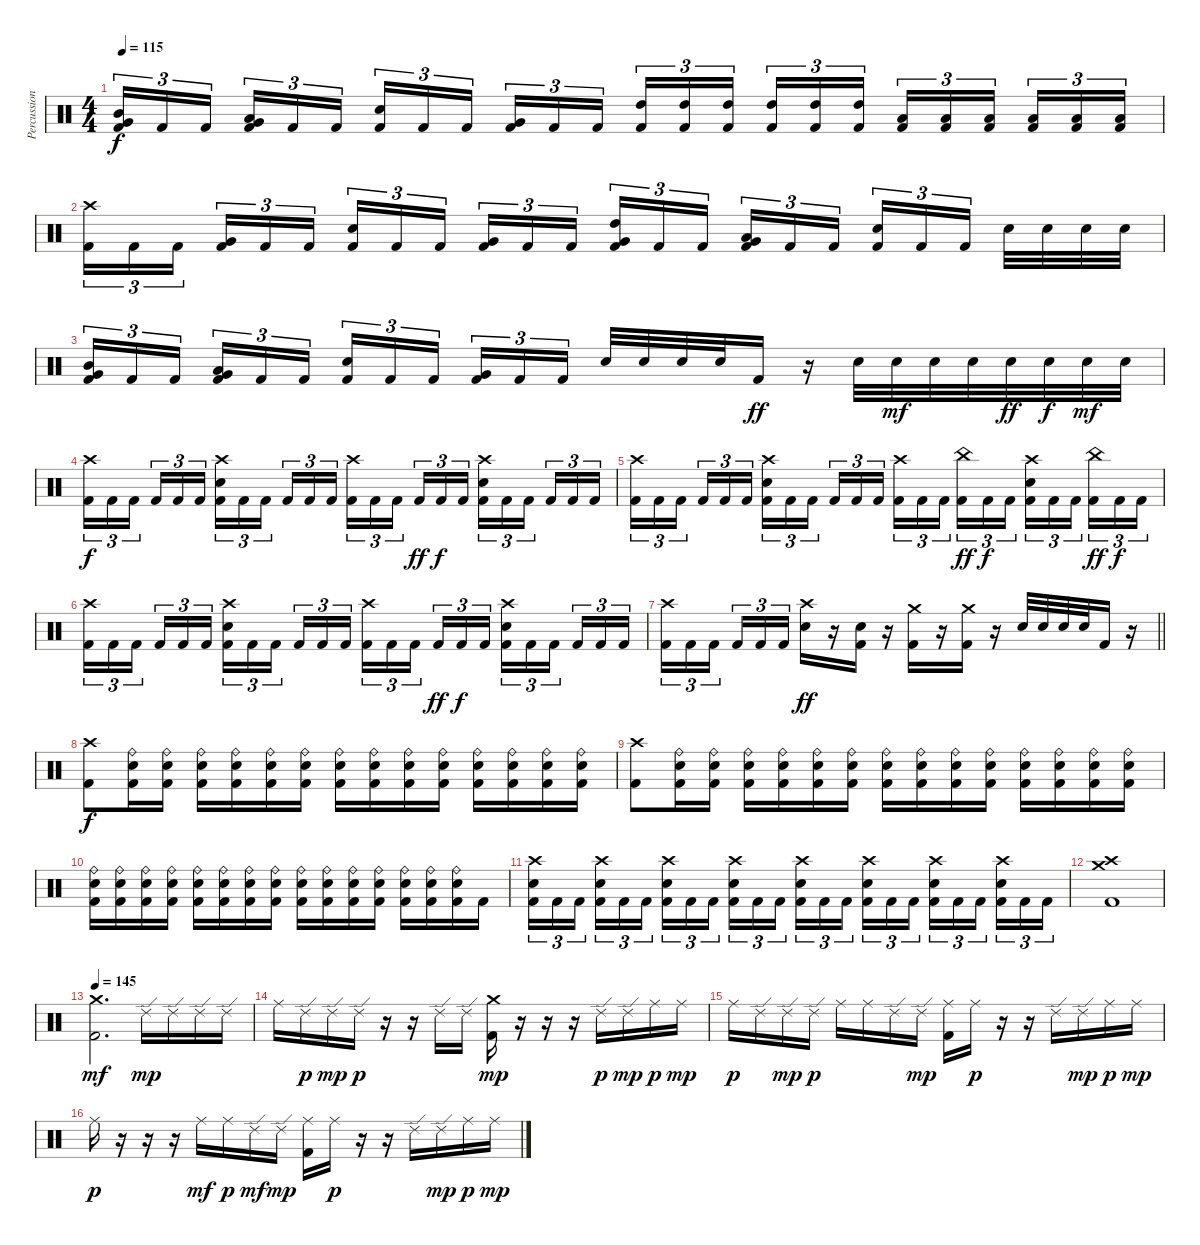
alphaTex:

\track ("Percussion" "Percussion") {instrument percussion}
\staff {score}
\articulation defaults
\ts (4 4)
\tempo 115
\clef neutral
\ks c
("Mid Tom (hit)" "Very Low Tom (hit)" "Kick (hit) 2").16{tu (3 2) dy f} "Kick (hit) 2".16{tu (3 2)} "Kick (hit) 2".16{tu (3 2) beam splitsecondary} ("Low Tom (hit)" "Very Low Tom (hit)" "Kick (hit) 2").16{tu (3 2)} "Kick (hit) 2".16{tu (3 2)} "Kick (hit) 2".16{tu (3 2)} ("Snare (hit) 2" "Kick (hit) 2").16{tu (3 2)} "Kick (hit) 2".16{tu (3 2)} "Kick (hit) 2".16{tu (3 2) beam splitsecondary} ("Very Low Tom (hit)" "Kick (hit) 2").16{tu (3 2)} "Kick (hit) 2".16{tu (3 2)} "Kick (hit) 2".16{tu (3 2)} ("High Tom (hit)" "Kick (hit) 2").16{tu (3 2)} ("High Tom (hit)" "Kick (hit) 2").16{tu (3 2)} ("High Tom (hit)" "Kick (hit) 2").16{tu (3 2) beam splitsecondary} ("High Tom (hit)" "Kick (hit) 2").16{tu (3 2)} ("High Tom (hit)" "Kick (hit) 2").16{tu (3 2)} ("High Tom (hit)" "Kick (hit) 2").16{tu (3 2)} ("Low Tom (hit)" "Kick (hit) 2").16{tu (3 2)} ("Low Tom (hit)" "Kick (hit) 2").16{tu (3 2)} ("Low Tom (hit)" "Kick (hit) 2").16{tu (3 2) beam splitsecondary} ("Low Tom (hit)" "Kick (hit) 2").16{tu (3 2)} ("Low Tom (hit)" "Kick (hit) 2").16{tu (3 2)} ("Low Tom (hit)" "Kick (hit) 2").16{tu (3 2)} |
("Crash high (hit)" "Kick (hit) 2").16{tu (3 2)} "Kick (hit) 2".16{tu (3 2)} "Kick (hit) 2".16{tu (3 2) beam splitsecondary} ("Very Low Tom (hit)" "Kick (hit) 2").16{tu (3 2)} "Kick (hit) 2".16{tu (3 2)} "Kick (hit) 2".16{tu (3 2)} ("Snare (hit) 2" "Kick (hit) 2").16{tu (3 2)} "Kick (hit) 2".16{tu (3 2)} "Kick (hit) 2".16{tu (3 2) beam splitsecondary} ("Very Low Tom (hit)" "Kick (hit) 2").16{tu (3 2)} "Kick (hit) 2".16{tu (3 2)} "Kick (hit) 2".16{tu (3 2)} ("High Tom (hit)" "Very Low Tom (hit)" "Kick (hit) 2").16{tu (3 2)} "Kick (hit) 2".16{tu (3 2)} "Kick (hit) 2".16{tu (3 2) beam splitsecondary} ("Low Tom (hit)" "Very Low Tom (hit)" "Kick (hit) 2").16{tu (3 2)} "Kick (hit) 2".16{tu (3 2)} "Kick (hit) 2".16{tu (3 2)} ("Snare (hit) 2" "Kick (hit) 2").16{tu (3 2)} "Kick (hit) 2".16{tu (3 2)} "Kick (hit) 2".16{tu (3 2) beam splitsecondary} "Snare (hit) 2".32 "Snare (hit) 2".32 "Snare (hit) 2".32 "Snare (hit) 2".32 |
("Mid Tom (hit)" "Very Low Tom (hit)" "Kick (hit) 2").16{tu (3 2)} "Kick (hit) 2".16{tu (3 2)} "Kick (hit) 2".16{tu (3 2) beam splitsecondary} ("Low Tom (hit)" "Very Low Tom (hit)" "Kick (hit) 2").16{tu (3 2)} "Kick (hit) 2".16{tu (3 2)} "Kick (hit) 2".16{tu (3 2)} ("Snare (hit) 2" "Kick (hit) 2").16{tu (3 2)} "Kick (hit) 2".16{tu (3 2)} "Kick (hit) 2".16{tu (3 2) beam splitsecondary} ("Very Low Tom (hit)" "Kick (hit) 2").16{tu (3 2)} "Kick (hit) 2".16{tu (3 2)} "Kick (hit) 2".16{tu (3 2)} "Snare (hit) 2".32 "Snare (hit) 2".32 "Snare (hit) 2".32 "Snare (hit) 2".32 "Kick (hit) 2".16{dy ff} r.16 "Snare (hit) 2".32 "Snare (hit) 2".32{dy mf} "Snare (hit) 2".32 "Snare (hit) 2".32 "Snare (hit) 2".32{dy ff} "Snare (hit) 2".32{dy f} "Snare (hit) 2".32{dy mf} "Snare (hit) 2".32 |
("Crash high (hit)" "Kick (hit) 2").16{tu (3 2) dy f} "Kick (hit) 2".16{tu (3 2)} "Kick (hit) 2".16{tu (3 2) beam splitsecondary} "Kick (hit) 2".16{tu (3 2)} "Kick (hit) 2".16{tu (3 2)} "Kick (hit) 2".16{tu (3 2)} ("Crash high (hit)" "Snare (hit) 2" "Kick (hit) 2").16{tu (3 2)} "Kick (hit) 2".16{tu (3 2)} "Kick (hit) 2".16{tu (3 2) beam splitsecondary} "Kick (hit) 2".16{tu (3 2)} "Kick (hit) 2".16{tu (3 2)} "Kick (hit) 2".16{tu (3 2)} ("Crash high (hit)" "Kick (hit) 2").16{tu (3 2)} "Kick (hit) 2".16{tu (3 2)} "Kick (hit) 2".16{tu (3 2) beam splitsecondary} "Kick (hit) 2".16{tu (3 2) dy ff} "Kick (hit) 2".16{tu (3 2) dy f} "Kick (hit) 2".16{tu (3 2)} ("Crash high (hit)" "Snare (hit) 2" "Kick (hit) 2").16{tu (3 2)} "Kick (hit) 2".16{tu (3 2)} "Kick (hit) 2".16{tu (3 2) beam splitsecondary} "Kick (hit) 2".16{tu (3 2)} "Kick (hit) 2".16{tu (3 2)} "Kick (hit) 2".16{tu (3 2)} |
("Crash high (hit)" "Kick (hit) 2").16{tu (3 2)} "Kick (hit) 2".16{tu (3 2)} "Kick (hit) 2".16{tu (3 2) beam splitsecondary} "Kick (hit) 2".16{tu (3 2)} "Kick (hit) 2".16{tu (3 2)} "Kick (hit) 2".16{tu (3 2)} ("Crash high (hit)" "Snare (hit) 2" "Kick (hit) 2").16{tu (3 2)} "Kick (hit) 2".16{tu (3 2)} "Kick (hit) 2".16{tu (3 2) beam splitsecondary} "Kick (hit) 2".16{tu (3 2)} "Kick (hit) 2".16{tu (3 2)} "Kick (hit) 2".16{tu (3 2)} ("Crash high (hit)" "Kick (hit) 2").16{tu (3 2)} "Kick (hit) 2".16{tu (3 2)} "Kick (hit) 2".16{tu (3 2) beam splitsecondary} ("China (hit)" "Kick (hit) 2").16{tu (3 2) dy ff} "Kick (hit) 2".16{tu (3 2) dy f} "Kick (hit) 2".16{tu (3 2)} ("Crash high (hit)" "Snare (hit) 2" "Kick (hit) 2").16{tu (3 2)} "Kick (hit) 2".16{tu (3 2)} "Kick (hit) 2".16{tu (3 2) beam splitsecondary} ("China (hit)" "Kick (hit) 2").16{tu (3 2) dy ff} "Kick (hit) 2".16{tu (3 2) dy f} "Kick (hit) 2".16{tu (3 2)} |
("Crash high (hit)" "Kick (hit) 2").16{tu (3 2)} "Kick (hit) 2".16{tu (3 2)} "Kick (hit) 2".16{tu (3 2) beam splitsecondary} "Kick (hit) 2".16{tu (3 2)} "Kick (hit) 2".16{tu (3 2)} "Kick (hit) 2".16{tu (3 2)} ("Crash high (hit)" "Snare (hit) 2" "Kick (hit) 2").16{tu (3 2)} "Kick (hit) 2".16{tu (3 2)} "Kick (hit) 2".16{tu (3 2) beam splitsecondary} "Kick (hit) 2".16{tu (3 2)} "Kick (hit) 2".16{tu (3 2)} "Kick (hit) 2".16{tu (3 2)} ("Crash high (hit)" "Kick (hit) 2").16{tu (3 2)} "Kick (hit) 2".16{tu (3 2)} "Kick (hit) 2".16{tu (3 2) beam splitsecondary} "Kick (hit) 2".16{tu (3 2) dy ff} "Kick (hit) 2".16{tu (3 2) dy f} "Kick (hit) 2".16{tu (3 2)} ("Crash high (hit)" "Snare (hit) 2" "Kick (hit) 2").16{tu (3 2)} "Kick (hit) 2".16{tu (3 2)} "Kick (hit) 2".16{tu (3 2) beam splitsecondary} "Kick (hit) 2".16{tu (3 2)} "Kick (hit) 2".16{tu (3 2)} "Kick (hit) 2".16{tu (3 2)} |
\barLineRight lightlight
("Crash high (hit)" "Kick (hit) 2").16{tu (3 2)} "Kick (hit) 2".16{tu (3 2)} "Kick (hit) 2".16{tu (3 2) beam splitsecondary} "Kick (hit) 2".16{tu (3 2)} "Kick (hit) 2".16{tu (3 2)} "Kick (hit) 2".16{tu (3 2)} ("Crash high (hit)" "Snare (hit) 2").16{dy ff} r.16 ("Snare (hit) 2" "Kick (hit) 2").16 r.16 ("Crash medium (hit)" "Kick (hit) 2").16 r.16 ("Crash medium (hit)" "Kick (hit) 2").16 r.16 "Snare (hit) 2".32 "Snare (hit) 2".32 "Snare (hit) 2".32 "Snare (hit) 2".32 "Kick (hit) 2".16 r.16 |
\section ("" "")
("Crash high (hit)" "Kick (hit) 2").8{dy f} ("Ride (bell)" "Snare (hit) 2" "Kick (hit) 2").16 ("Ride (bell)" "Snare (hit) 2" "Kick (hit) 2").16 ("Ride (bell)" "Snare (hit) 2" "Kick (hit) 2").16 ("Ride (bell)" "Snare (hit) 2" "Kick (hit) 2").16 ("Ride (bell)" "Snare (hit) 2" "Kick (hit) 2").16 ("Ride (bell)" "Snare (hit) 2" "Kick (hit) 2").16 ("Ride (bell)" "Snare (hit) 2" "Kick (hit) 2").16 ("Ride (bell)" "Snare (hit) 2" "Kick (hit) 2").16 ("Ride (bell)" "Snare (hit) 2" "Kick (hit) 2").16 ("Ride (bell)" "Snare (hit) 2" "Kick (hit) 2").16 ("Ride (bell)" "Snare (hit) 2" "Kick (hit) 2").16 ("Ride (bell)" "Snare (hit) 2" "Kick (hit) 2").16 ("Ride (bell)" "Snare (hit) 2" "Kick (hit) 2").16 ("Ride (bell)" "Snare (hit) 2" "Kick (hit) 2").16 |
("Crash high (hit)" "Kick (hit) 2").8 ("Ride (bell)" "Snare (hit) 2" "Kick (hit) 2").16 ("Ride (bell)" "Snare (hit) 2" "Kick (hit) 2").16 ("Ride (bell)" "Snare (hit) 2" "Kick (hit) 2").16 ("Ride (bell)" "Snare (hit) 2" "Kick (hit) 2").16 ("Ride (bell)" "Snare (hit) 2" "Kick (hit) 2").16 ("Ride (bell)" "Snare (hit) 2" "Kick (hit) 2").16 ("Ride (bell)" "Snare (hit) 2" "Kick (hit) 2").16 ("Ride (bell)" "Snare (hit) 2" "Kick (hit) 2").16 ("Ride (bell)" "Snare (hit) 2" "Kick (hit) 2").16 ("Ride (bell)" "Snare (hit) 2" "Kick (hit) 2").16 ("Ride (bell)" "Snare (hit) 2" "Kick (hit) 2").16 ("Ride (bell)" "Snare (hit) 2" "Kick (hit) 2").16 ("Ride (bell)" "Snare (hit) 2" "Kick (hit) 2").16 ("Ride (bell)" "Snare (hit) 2" "Kick (hit) 2").16 |
("Ride (bell)" "Snare (hit) 2" "Kick (hit) 2").16 ("Ride (bell)" "Snare (hit) 2" "Kick (hit) 2").16 ("Ride (bell)" "Snare (hit) 2" "Kick (hit) 2").16 ("Ride (bell)" "Snare (hit) 2" "Kick (hit) 2").16 ("Ride (bell)" "Snare (hit) 2" "Kick (hit) 2").16 ("Ride (bell)" "Snare (hit) 2" "Kick (hit) 2").16 ("Ride (bell)" "Snare (hit) 2" "Kick (hit) 2").16 ("Ride (bell)" "Snare (hit) 2" "Kick (hit) 2").16 ("Ride (bell)" "Snare (hit) 2" "Kick (hit) 2").16 ("Ride (bell)" "Snare (hit) 2" "Kick (hit) 2").16 ("Ride (bell)" "Snare (hit) 2" "Kick (hit) 2").16 ("Ride (bell)" "Snare (hit) 2" "Kick (hit) 2").16 ("Ride (bell)" "Snare (hit) 2" "Kick (hit) 2").16 ("Ride (bell)" "Snare (hit) 2" "Kick (hit) 2").16 ("Ride (bell)" "Snare (hit) 2" "Kick (hit) 2").16 "Kick (hit) 2".16 |
("Crash high (hit)" "Snare (hit) 2" "Kick (hit) 2").16{tu (3 2)} "Kick (hit) 2".16{tu (3 2)} "Kick (hit) 2".16{tu (3 2) beam splitsecondary} ("Crash high (hit)" "Snare (hit) 2" "Kick (hit) 2").16{tu (3 2)} "Kick (hit) 2".16{tu (3 2)} "Kick (hit) 2".16{tu (3 2)} ("Crash high (hit)" "Snare (hit) 2" "Kick (hit) 2").16{tu (3 2)} "Kick (hit) 2".16{tu (3 2)} "Kick (hit) 2".16{tu (3 2) beam splitsecondary} ("Crash high (hit)" "Snare (hit) 2" "Kick (hit) 2").16{tu (3 2)} "Kick (hit) 2".16{tu (3 2)} "Kick (hit) 2".16{tu (3 2)} ("Crash high (hit)" "Snare (hit) 2" "Kick (hit) 2").16{tu (3 2)} "Kick (hit) 2".16{tu (3 2)} "Kick (hit) 2".16{tu (3 2) beam splitsecondary} ("Crash high (hit)" "Snare (hit) 2" "Kick (hit) 2").16{tu (3 2)} "Kick (hit) 2".16{tu (3 2)} "Kick (hit) 2".16{tu (3 2)} ("Crash high (hit)" "Snare (hit) 2" "Kick (hit) 2").16{tu (3 2)} "Kick (hit) 2".16{tu (3 2)} "Kick (hit) 2".16{tu (3 2) beam splitsecondary} ("Crash high (hit)" "Snare (hit) 2" "Kick (hit) 2").16{tu (3 2)} "Kick (hit) 2".16{tu (3 2)} "Kick (hit) 2".16{tu (3 2)} |
("Crash high (hit)" "Crash medium (hit)" "Kick (hit) 2").1 |
\tempo 145
("Crash medium (hit)" "Kick (hit) 2").2{d dy mf} "Ride (edge) 2".16{dy mp} "Ride (edge) 2".16 "Ride (edge) 2".16 "Ride (edge) 2".16 |
"Ride (middle)".16 "Ride (edge) 2".16{dy p} "Ride (edge) 2".16{dy mp} "Ride (edge) 2".16{dy p} r.16 r.16 "Ride (edge) 2".16 "Ride (edge) 2".16 ("Crash medium (hit)" "Kick (hit) 2").16{dy mp} r.16 r.16 r.16 "Ride (edge) 2".16{dy p} "Ride (edge) 2".16{dy mp} "Ride (middle)".16{dy p} "Ride (middle)".16{dy mp} |
"Ride (middle)".16{dy p} "Ride (edge) 2".16 "Ride (edge) 2".16{dy mp} "Ride (edge) 2".16{dy p} "Ride (middle)".16 "Ride (middle)".16 "Ride (edge) 2".16 "Ride (edge) 2".16{dy mp} ("Ride (middle)" "Kick (hit) 2").16 "Ride (middle)".16{dy p} r.16 r.16 "Ride (edge) 2".16 "Ride (edge) 2".16{dy mp} "Ride (middle)".16{dy p} "Ride (middle)".16{dy mp} |
"Ride (middle)".16{dy p} r.16 r.16 r.16 "Ride (middle)".16{dy mf} "Ride (middle)".16{dy p} "Ride (edge) 2".16{dy mf} "Ride (edge) 2".16{dy mp} ("Ride (middle)" "Kick (hit) 2").16 "Ride (middle)".16{dy p} r.16 r.16 "Ride (edge) 2".16 "Ride (edge) 2".16{dy mp} "Ride (middle)".16{dy p} "Ride (middle)".16{dy mp}
